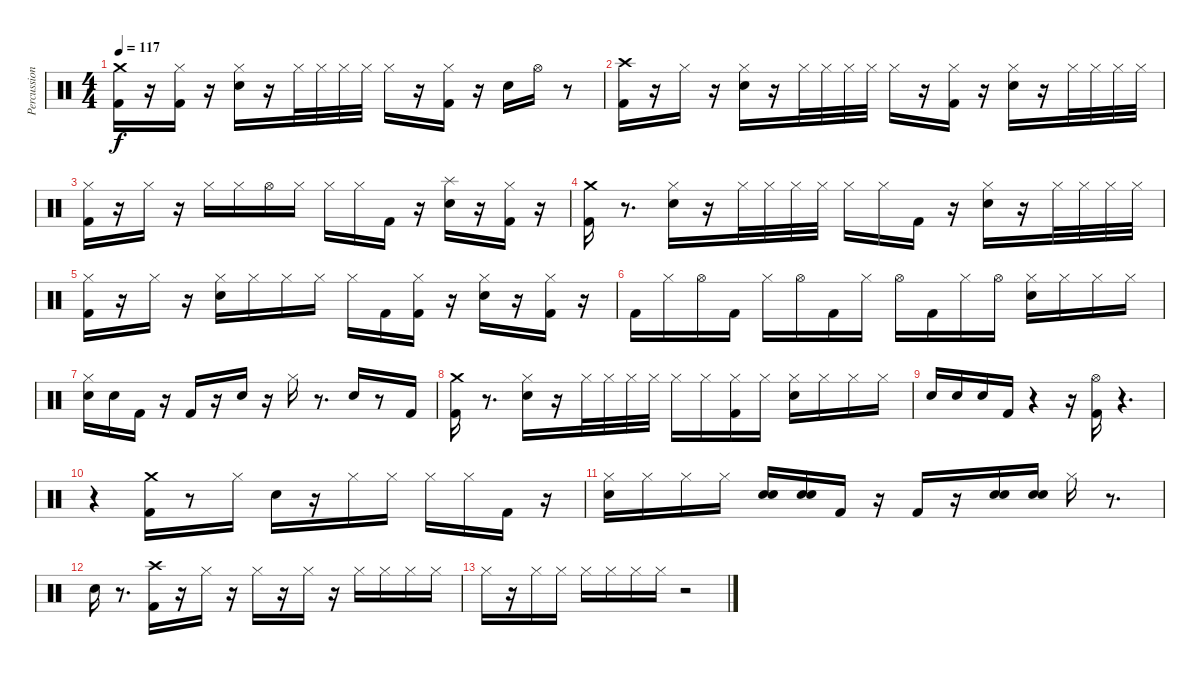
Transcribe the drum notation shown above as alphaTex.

\track ("Percussion" "Percussion") {instrument percussion}
\staff {score}
\articulation defaults
\ts (4 4)
\tempo 117
\clef neutral
\ks c
("Kick (hit) 2" "Crash medium (hit)").16{dy f} r.16 ("Hi-Hat (closed)" "Kick (hit) 2").16 r.16 ("Snare (hit) 2" "Hi-Hat (closed)").16 r.16 "Hi-Hat (closed)".32 "Hi-Hat (closed)".32 "Hi-Hat (closed)".32 "Hi-Hat (closed)".32 "Hi-Hat (closed)".16 r.16 ("Hi-Hat (closed)" "Kick (hit) 2").16 r.16 "Snare (hit) 2".16 "Hi-Hat (open)".16 r.8 |
("Crash high (hit)" "Kick (hit) 2").16 r.16 "Hi-Hat (closed)".16 r.16 ("Hi-Hat (closed)" "Snare (hit) 2").16 r.16 "Hi-Hat (closed)".32 "Hi-Hat (closed)".32 "Hi-Hat (closed)".32 "Hi-Hat (closed)".32 "Hi-Hat (closed)".16 r.16 ("Kick (hit) 2" "Hi-Hat (closed)").16 r.16 ("Hi-Hat (closed)" "Snare (hit) 2").16 r.16 "Hi-Hat (closed)".32 "Hi-Hat (closed)".32 "Hi-Hat (closed)".32 "Hi-Hat (closed)".32 |
("Hi-Hat (closed)" "Kick (hit) 2").16 r.16 "Hi-Hat (closed)".16 r.16 "Hi-Hat (closed)".16 "Hi-Hat (closed)".16 "Hi-Hat (open)".16 "Hi-Hat (closed)".16 "Hi-Hat (closed)".16 "Hi-Hat (closed)".16 "Kick (hit) 2".16 r.16 ("Snare (hit) 2" "Splash (hit)").16 r.16 ("Hi-Hat (closed)" "Kick (hit) 2").16 r.16 |
("Crash medium (hit)" "Kick (hit) 2").16 r.8{d} ("Snare (hit) 2" "Hi-Hat (closed)").16 r.16 "Hi-Hat (closed)".32 "Hi-Hat (closed)".32 "Hi-Hat (closed)".32 "Hi-Hat (closed)".32 "Hi-Hat (closed)".16 "Hi-Hat (closed)".16 "Kick (hit) 2".16 r.16 ("Snare (hit) 2" "Hi-Hat (closed)").16 r.16 "Hi-Hat (closed)".32 "Hi-Hat (closed)".32 "Hi-Hat (closed)".32 "Hi-Hat (closed)".32 |
("Hi-Hat (closed)" "Kick (hit) 2").16 r.16 "Hi-Hat (closed)".16 r.16 ("Hi-Hat (closed)" "Snare (hit) 2").16 "Hi-Hat (closed)".16 "Hi-Hat (closed)".16 "Hi-Hat (closed)".16 "Hi-Hat (closed)".16 "Kick (hit) 2".16 ("Hi-Hat (closed)" "Kick (hit) 2").16 r.16 ("Snare (hit) 2" "Hi-Hat (closed)").16 r.16 ("Hi-Hat (closed)" "Kick (hit) 2").16 r.16 |
"Kick (hit) 2".16 "Hi-Hat (closed)".16 "Hi-Hat (open)".16 "Kick (hit) 2".16 "Hi-Hat (closed)".16 "Hi-Hat (open)".16 "Kick (hit) 2".16 "Hi-Hat (closed)".16 "Hi-Hat (open)".16 "Kick (hit) 2".16 "Hi-Hat (closed)".16 "Hi-Hat (open)".16 ("Hi-Hat (closed)" "Snare (hit) 2").16 "Hi-Hat (closed)".16 "Hi-Hat (closed)".16 "Hi-Hat (closed)".16 |
("Snare (hit) 2" "Hi-Hat (closed)").16 "Snare (hit) 2".16 "Kick (hit) 2".16 r.16 "Kick (hit) 2".16 r.16 "Snare (hit) 2".16 r.16 "Hi-Hat (closed)".16 r.8{d} "Snare (hit) 2".16 r.8 "Kick (hit) 2".16 |
("Kick (hit) 2" "Crash medium (hit)").16 r.8{d} ("Snare (hit) 2" "Hi-Hat (closed)").16 r.16 "Hi-Hat (closed)".32 "Hi-Hat (closed)".32 "Hi-Hat (closed)".32 "Hi-Hat (closed)".32 "Hi-Hat (closed)".16 "Hi-Hat (closed)".16 ("Hi-Hat (closed)" "Kick (hit) 2").16 "Hi-Hat (closed)".16 ("Hi-Hat (closed)" "Snare (hit) 2").16 "Hi-Hat (closed)".16 "Hi-Hat (closed)".16 "Hi-Hat (closed)".16 |
"Snare (hit) 2".16 "Snare (hit) 2".16 "Snare (hit) 2".16 "Kick (hit) 2".16 r.4 r.16 ("Kick (hit) 2" "Hi-Hat (open)").16 r.4{d} |
r.4 ("Kick (hit) 2" "Crash medium (hit)").16 r.8 "Hi-Hat (closed)".16 "Snare (hit) 2".16 r.16 "Hi-Hat (closed)".16 "Hi-Hat (closed)".16 "Hi-Hat (closed)".16 "Hi-Hat (closed)".16 "Kick (hit) 2".16 r.16 |
("Snare (hit) 2" "Hi-Hat (closed)").16 "Hi-Hat (closed)".16 "Hi-Hat (closed)".16 "Hi-Hat (closed)".16 ("Snare (hit) 2" "Snare (hit) 2").16 ("Snare (hit) 2" "Snare (hit) 2").16 "Kick (hit) 2".16 r.16 "Kick (hit) 2".16 r.16 ("Snare (hit) 2" "Snare (hit) 2").16 ("Snare (hit) 2" "Snare (hit) 2").16 "Hi-Hat (closed)".16 r.8{d} |
"Snare (hit) 2".16 r.8{d} ("Kick (hit) 2" "Crash high (hit)").16 r.16 "Hi-Hat (closed)".16 r.16 "Hi-Hat (closed)".16 r.16 "Hi-Hat (closed)".16 r.16 "Hi-Hat (closed)".16 "Hi-Hat (closed)".16 "Hi-Hat (closed)".16 "Hi-Hat (closed)".16 |
"Hi-Hat (closed)".16 r.16 "Hi-Hat (closed)".16 "Hi-Hat (closed)".16 "Hi-Hat (closed)".16 "Hi-Hat (closed)".16 "Hi-Hat (closed)".16 "Hi-Hat (closed)".16 r.2
